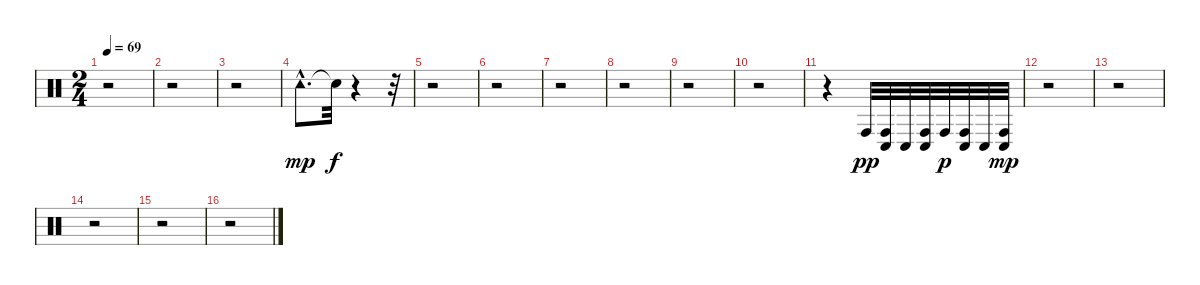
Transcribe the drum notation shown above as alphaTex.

\track "" {instrument percussion}
\staff {score}
\articulation defaults
\ts (2 4)
\tempo 69
\clef neutral
\ks c
r.2{dy mp} |
r.2 |
r.2 |
"Tambourine (hit)"{hac}.8{d} "Snare (hit)"{t}.32{dy f} r.4 r.32 |
r.2 |
r.2 |
r.2 |
r.2 |
r.2 |
r.2 |
r.4 "Conga high (hit)".32{dy pp} ("Conga low (hit)" "Conga high (hit)").32 "Conga low (hit)".32 ("Conga high (hit)" "Conga low (hit)").32 "Conga high (hit)".32{dy p} ("Conga low (hit)" "Conga high (hit)").32 "Conga low (hit)".32 ("Conga high (hit)" "Conga low (hit)").32{dy mp} |
r.2 |
r.2 |
r.2 |
r.2 |
r.2
